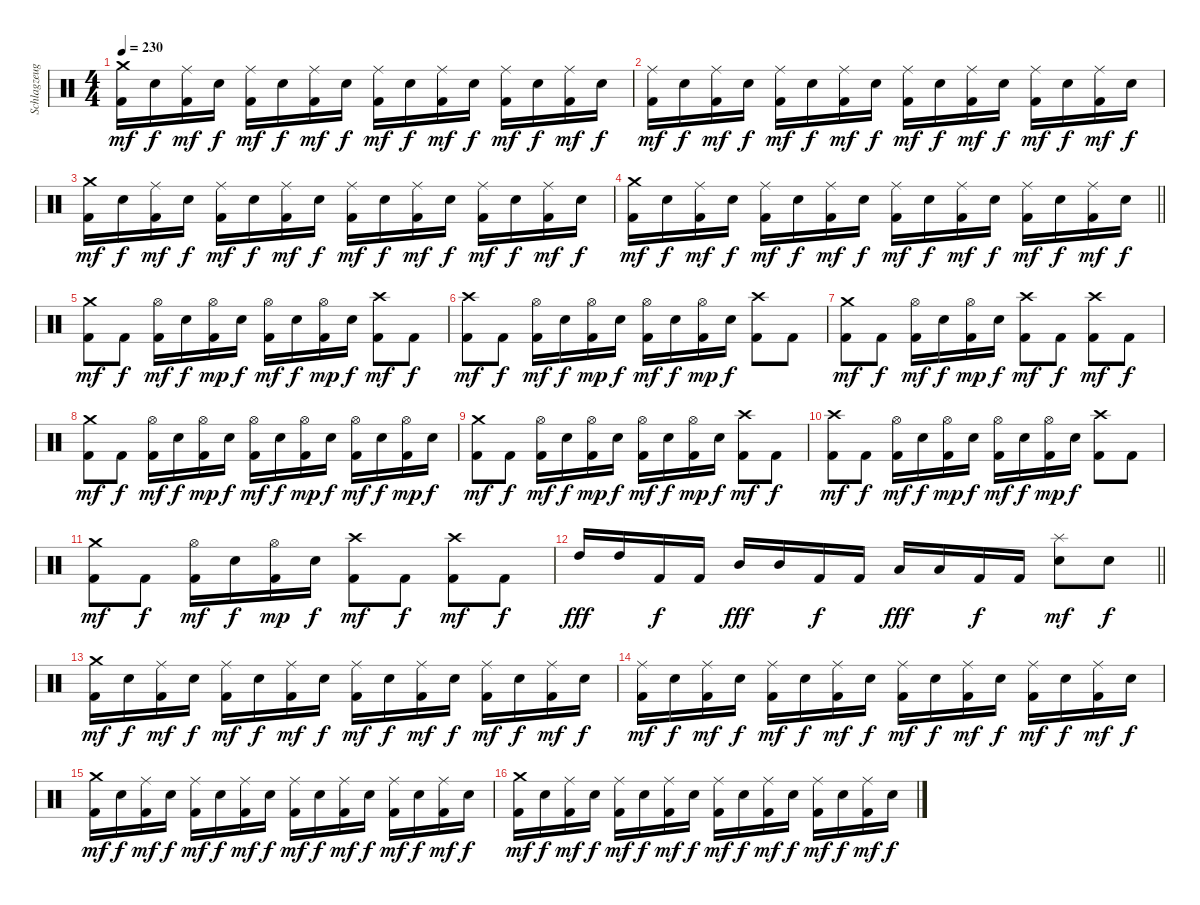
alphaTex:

\track ("Schlagzeug" "Schlagzeug") {instrument percussion}
\staff {score}
\articulation defaults
\ts (4 4)
\tempo 230
\clef neutral
\ks c
("Crash medium (hit)" "Kick (hit) 2").16{dy mf} "Electric Snare (hit)".16{dy f} ("Ride (middle)" "Kick (hit) 2").16{dy mf} "Electric Snare (hit)".16{dy f} ("Ride (middle)" "Kick (hit) 2").16{dy mf} "Electric Snare (hit)".16{dy f} ("Ride (middle)" "Kick (hit) 2").16{dy mf} "Electric Snare (hit)".16{dy f} ("Ride (middle)" "Kick (hit) 2").16{dy mf} "Electric Snare (hit)".16{dy f} ("Ride (middle)" "Kick (hit) 2").16{dy mf} "Electric Snare (hit)".16{dy f} ("Ride (middle)" "Kick (hit) 2").16{dy mf} "Electric Snare (hit)".16{dy f} ("Ride (middle)" "Kick (hit) 2").16{dy mf} "Electric Snare (hit)".16{dy f} |
("Ride (middle)" "Kick (hit) 2").16{dy mf} "Electric Snare (hit)".16{dy f} ("Ride (middle)" "Kick (hit) 2").16{dy mf} "Electric Snare (hit)".16{dy f} ("Ride (middle)" "Kick (hit) 2").16{dy mf} "Electric Snare (hit)".16{dy f} ("Ride (middle)" "Kick (hit) 2").16{dy mf} "Electric Snare (hit)".16{dy f} ("Ride (middle)" "Kick (hit) 2").16{dy mf} "Electric Snare (hit)".16{dy f} ("Ride (middle)" "Kick (hit) 2").16{dy mf} "Electric Snare (hit)".16{dy f} ("Ride (middle)" "Kick (hit) 2").16{dy mf} "Electric Snare (hit)".16{dy f} ("Ride (middle)" "Kick (hit) 2").16{dy mf} "Electric Snare (hit)".16{dy f} |
("Crash medium (hit)" "Kick (hit) 2").16{dy mf} "Electric Snare (hit)".16{dy f} ("Ride (middle)" "Kick (hit) 2").16{dy mf} "Electric Snare (hit)".16{dy f} ("Ride (middle)" "Kick (hit) 2").16{dy mf} "Electric Snare (hit)".16{dy f} ("Ride (middle)" "Kick (hit) 2").16{dy mf} "Electric Snare (hit)".16{dy f} ("Ride (middle)" "Kick (hit) 2").16{dy mf} "Electric Snare (hit)".16{dy f} ("Ride (middle)" "Kick (hit) 2").16{dy mf} "Electric Snare (hit)".16{dy f} ("Ride (middle)" "Kick (hit) 2").16{dy mf} "Electric Snare (hit)".16{dy f} ("Ride (middle)" "Kick (hit) 2").16{dy mf} "Electric Snare (hit)".16{dy f} |
\barLineRight lightlight
("Crash medium (hit)" "Kick (hit) 2").16{dy mf} "Electric Snare (hit)".16{dy f} ("Ride (middle)" "Kick (hit) 2").16{dy mf} "Electric Snare (hit)".16{dy f} ("Ride (middle)" "Kick (hit) 2").16{dy mf} "Electric Snare (hit)".16{dy f} ("Ride (middle)" "Kick (hit) 2").16{dy mf} "Electric Snare (hit)".16{dy f} ("Ride (middle)" "Kick (hit) 2").16{dy mf} "Electric Snare (hit)".16{dy f} ("Ride (middle)" "Kick (hit) 2").16{dy mf} "Electric Snare (hit)".16{dy f} ("Ride (middle)" "Kick (hit) 2").16{dy mf} "Electric Snare (hit)".16{dy f} ("Ride (middle)" "Kick (hit) 2").16{dy mf} "Electric Snare (hit)".16{dy f} |
\section ("" "")
("Crash medium (hit)" "Kick (hit) 2").8{dy mf} "Kick (hit) 2".8{dy f} ("Hi-Hat (open)" "Kick (hit) 2").16{dy mf} "Electric Snare (hit)".16{dy f} ("Hi-Hat (open)" "Kick (hit) 2").16{dy mp} "Electric Snare (hit)".16{dy f} ("Hi-Hat (open)" "Kick (hit) 2").16{dy mf} "Electric Snare (hit)".16{dy f} ("Hi-Hat (open)" "Kick (hit) 2").16{dy mp} "Electric Snare (hit)".16{dy f} ("Crash high (hit)" "Kick (hit) 2").8{dy mf} "Kick (hit) 2".8{dy f} |
("Crash high (hit)" "Kick (hit) 2").8{dy mf} "Kick (hit) 2".8{dy f} ("Hi-Hat (open)" "Kick (hit) 2").16{dy mf} "Electric Snare (hit)".16{dy f} ("Hi-Hat (open)" "Kick (hit) 2").16{dy mp} "Electric Snare (hit)".16{dy f} ("Hi-Hat (open)" "Kick (hit) 2").16{dy mf} "Electric Snare (hit)".16{dy f} ("Hi-Hat (open)" "Kick (hit) 2").16{dy mp} "Electric Snare (hit)".16{dy f} ("Crash high (hit)" "Kick (hit) 2").8 "Kick (hit) 2".8 |
("Crash medium (hit)" "Kick (hit) 2").8{dy mf} "Kick (hit) 2".8{dy f} ("Hi-Hat (open)" "Kick (hit) 2").16{dy mf} "Electric Snare (hit)".16{dy f} ("Hi-Hat (open)" "Kick (hit) 2").16{dy mp} "Electric Snare (hit)".16{dy f} ("Crash high (hit)" "Kick (hit) 2").8{dy mf} "Kick (hit) 2".8{dy f} ("Crash high (hit)" "Kick (hit) 2").8{dy mf} "Kick (hit) 2".8{dy f} |
("Crash medium (hit)" "Kick (hit) 2").8{dy mf} "Kick (hit) 2".8{dy f} ("Hi-Hat (open)" "Kick (hit) 2").16{dy mf} "Electric Snare (hit)".16{dy f} ("Hi-Hat (open)" "Kick (hit) 2").16{dy mp} "Electric Snare (hit)".16{dy f} ("Hi-Hat (open)" "Kick (hit) 2").16{dy mf} "Electric Snare (hit)".16{dy f} ("Hi-Hat (open)" "Kick (hit) 2").16{dy mp} "Electric Snare (hit)".16{dy f} ("Hi-Hat (open)" "Kick (hit) 2").16{dy mf} "Electric Snare (hit)".16{dy f} ("Hi-Hat (open)" "Kick (hit) 2").16{dy mp} "Electric Snare (hit)".16{dy f} |
("Crash medium (hit)" "Kick (hit) 2").8{dy mf} "Kick (hit) 2".8{dy f} ("Hi-Hat (open)" "Kick (hit) 2").16{dy mf} "Electric Snare (hit)".16{dy f} ("Hi-Hat (open)" "Kick (hit) 2").16{dy mp} "Electric Snare (hit)".16{dy f} ("Hi-Hat (open)" "Kick (hit) 2").16{dy mf} "Electric Snare (hit)".16{dy f} ("Hi-Hat (open)" "Kick (hit) 2").16{dy mp} "Electric Snare (hit)".16{dy f} ("Crash high (hit)" "Kick (hit) 2").8{dy mf} "Kick (hit) 2".8{dy f} |
("Crash high (hit)" "Kick (hit) 2").8{dy mf} "Kick (hit) 2".8{dy f} ("Hi-Hat (open)" "Kick (hit) 2").16{dy mf} "Electric Snare (hit)".16{dy f} ("Hi-Hat (open)" "Kick (hit) 2").16{dy mp} "Electric Snare (hit)".16{dy f} ("Hi-Hat (open)" "Kick (hit) 2").16{dy mf} "Electric Snare (hit)".16{dy f} ("Hi-Hat (open)" "Kick (hit) 2").16{dy mp} "Electric Snare (hit)".16{dy f} ("Crash high (hit)" "Kick (hit) 2").8 "Kick (hit) 2".8 |
("Crash medium (hit)" "Kick (hit) 2").8{dy mf} "Kick (hit) 2".8{dy f} ("Hi-Hat (open)" "Kick (hit) 2").16{dy mf} "Electric Snare (hit)".16{dy f} ("Hi-Hat (open)" "Kick (hit) 2").16{dy mp} "Electric Snare (hit)".16{dy f} ("Crash high (hit)" "Kick (hit) 2").8{dy mf} "Kick (hit) 2".8{dy f} ("Crash high (hit)" "Kick (hit) 2").8{dy mf} "Kick (hit) 2".8{dy f} |
\barLineRight lightlight "High Tom (hit)".16{dy fff} "High Tom (hit)".16 "Kick (hit) 2".16{dy f} "Kick (hit) 2".16 "Mid Tom (hit)".16{dy fff} "Mid Tom (hit)".16 "Kick (hit) 2".16{dy f} "Kick (hit) 2".16 "Low Tom (hit)".16{dy fff} "Low Tom (hit)".16 "Kick (hit) 2".16{dy f} "Kick (hit) 2".16
("Splash (hit)" "Electric Snare (hit)").8{dy mf} "Electric Snare (hit)".8{dy f} |
\section ("" "")
("Crash medium (hit)" "Kick (hit) 2").16{dy mf} "Electric Snare (hit)".16{dy f} ("Ride (middle)" "Kick (hit) 2").16{dy mf} "Electric Snare (hit)".16{dy f} ("Ride (middle)" "Kick (hit) 2").16{dy mf} "Electric Snare (hit)".16{dy f} ("Ride (middle)" "Kick (hit) 2").16{dy mf} "Electric Snare (hit)".16{dy f} ("Ride (middle)" "Kick (hit) 2").16{dy mf} "Electric Snare (hit)".16{dy f} ("Ride (middle)" "Kick (hit) 2").16{dy mf} "Electric Snare (hit)".16{dy f} ("Ride (middle)" "Kick (hit) 2").16{dy mf} "Electric Snare (hit)".16{dy f} ("Ride (middle)" "Kick (hit) 2").16{dy mf} "Electric Snare (hit)".16{dy f} |
("Ride (middle)" "Kick (hit) 2").16{dy mf} "Electric Snare (hit)".16{dy f} ("Ride (middle)" "Kick (hit) 2").16{dy mf} "Electric Snare (hit)".16{dy f} ("Ride (middle)" "Kick (hit) 2").16{dy mf} "Electric Snare (hit)".16{dy f} ("Ride (middle)" "Kick (hit) 2").16{dy mf} "Electric Snare (hit)".16{dy f} ("Ride (middle)" "Kick (hit) 2").16{dy mf} "Electric Snare (hit)".16{dy f} ("Ride (middle)" "Kick (hit) 2").16{dy mf} "Electric Snare (hit)".16{dy f} ("Ride (middle)" "Kick (hit) 2").16{dy mf} "Electric Snare (hit)".16{dy f} ("Ride (middle)" "Kick (hit) 2").16{dy mf} "Electric Snare (hit)".16{dy f} |
("Crash medium (hit)" "Kick (hit) 2").16{dy mf} "Electric Snare (hit)".16{dy f} ("Ride (middle)" "Kick (hit) 2").16{dy mf} "Electric Snare (hit)".16{dy f} ("Ride (middle)" "Kick (hit) 2").16{dy mf} "Electric Snare (hit)".16{dy f} ("Ride (middle)" "Kick (hit) 2").16{dy mf} "Electric Snare (hit)".16{dy f} ("Ride (middle)" "Kick (hit) 2").16{dy mf} "Electric Snare (hit)".16{dy f} ("Ride (middle)" "Kick (hit) 2").16{dy mf} "Electric Snare (hit)".16{dy f} ("Ride (middle)" "Kick (hit) 2").16{dy mf} "Electric Snare (hit)".16{dy f} ("Ride (middle)" "Kick (hit) 2").16{dy mf} "Electric Snare (hit)".16{dy f} |
("Crash medium (hit)" "Kick (hit) 2").16{dy mf} "Electric Snare (hit)".16{dy f} ("Ride (middle)" "Kick (hit) 2").16{dy mf} "Electric Snare (hit)".16{dy f} ("Ride (middle)" "Kick (hit) 2").16{dy mf} "Electric Snare (hit)".16{dy f} ("Ride (middle)" "Kick (hit) 2").16{dy mf} "Electric Snare (hit)".16{dy f} ("Ride (middle)" "Kick (hit) 2").16{dy mf} "Electric Snare (hit)".16{dy f} ("Ride (middle)" "Kick (hit) 2").16{dy mf} "Electric Snare (hit)".16{dy f} ("Ride (middle)" "Kick (hit) 2").16{dy mf} "Electric Snare (hit)".16{dy f} ("Ride (middle)" "Kick (hit) 2").16{dy mf} "Electric Snare (hit)".16{dy f}
